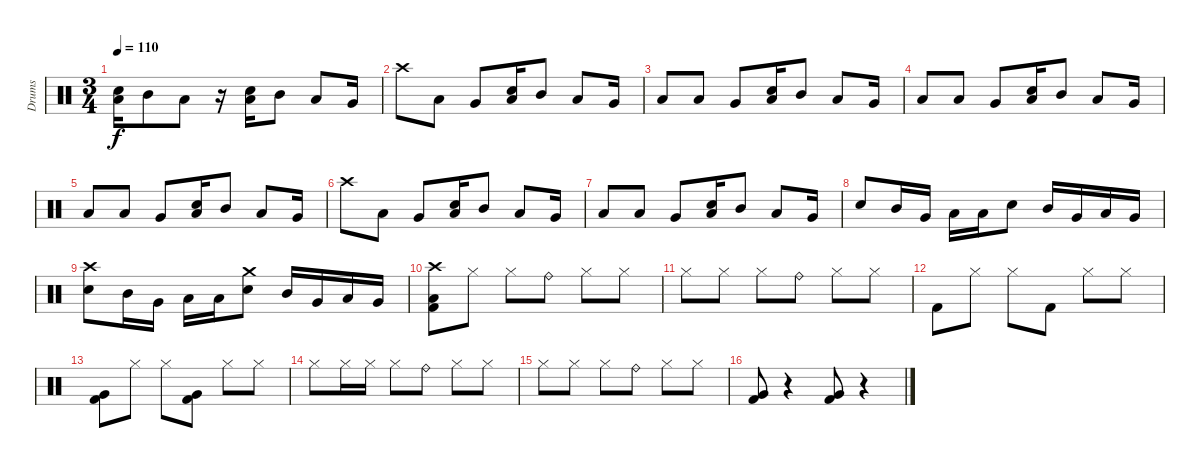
\track ("Drums" "Drums") {instrument percussion}
\staff {score}
\articulation defaults
\ts (3 4)
\tempo 110
\clef neutral
\ks c
("Low Floor Tom (hit)" "Snare (hit) 2").16{dy f} "Mid Tom (hit)".8 "Low Tom (hit)".8 r.16 ("Low Floor Tom (hit)" "Snare (hit) 2").16 "Mid Tom (hit)".8 "Low Tom (hit)".8 "Very Low Tom (hit)".16 |
"Crash high (hit)".8 "Low Tom (hit)".8 "Very Low Tom (hit)".8 ("Low Floor Tom (hit)" "Snare (hit) 2").16 "Mid Tom (hit)".8 "Low Tom (hit)".8 "Very Low Tom (hit)".16 |
"Low Floor Tom (hit)".8 "Low Tom (hit)".8 "Very Low Tom (hit)".8 ("Low Floor Tom (hit)" "Snare (hit) 2").16 "Mid Tom (hit)".8 "Low Tom (hit)".8 "Very Low Tom (hit)".16 |
"Low Floor Tom (hit)".8 "Low Tom (hit)".8 "Very Low Tom (hit)".8 ("Low Floor Tom (hit)" "Snare (hit) 2").16 "Mid Tom (hit)".8 "Low Tom (hit)".8 "Very Low Tom (hit)".16 |
"Low Floor Tom (hit)".8 "Low Tom (hit)".8 "Very Low Tom (hit)".8 ("Low Floor Tom (hit)" "Snare (hit) 2").16 "Mid Tom (hit)".8 "Low Tom (hit)".8 "Very Low Tom (hit)".16 |
"Crash high (hit)".8 "Low Tom (hit)".8 "Very Low Tom (hit)".8 ("Low Floor Tom (hit)" "Snare (hit) 2").16 "Mid Tom (hit)".8 "Low Tom (hit)".8 "Very Low Tom (hit)".16 |
"Low Floor Tom (hit)".8 "Low Tom (hit)".8 "Very Low Tom (hit)".8 ("Low Floor Tom (hit)" "Snare (hit) 2").16 "Mid Tom (hit)".8 "Low Tom (hit)".8 "Very Low Tom (hit)".16 |
"Snare (hit) 2".8 "Mid Tom (hit)".16 "Very Low Tom (hit)".16 "Low Tom (hit)".16 "Low Floor Tom (hit)".16 "Snare (hit) 2".8 "Mid Tom (hit)".16 "Very Low Tom (hit)".16 "Low Tom (hit)".16 "Very Low Tom (hit)".16 |
("Crash high (hit)" "Snare (hit) 2").8 "Mid Tom (hit)".16 "Very Low Tom (hit)".16 "Low Tom (hit)".16 "Low Floor Tom (hit)".16 ("Crash medium (hit)" "Snare (hit) 2").8 "Mid Tom (hit)".16 "Very Low Tom (hit)".16 "Low Tom (hit)".16 "Very Low Tom (hit)".16 |
("Crash high (hit)" "Low Floor Tom (hit)" "Kick (hit) 2").8 "Hi-Hat (closed)".8 "Hi-Hat (closed)".8 "Ride (bell)".8 "Hi-Hat (closed)".8 "Hi-Hat (closed)".8 |
"Hi-Hat (closed)".8 "Hi-Hat (closed)".8 "Hi-Hat (closed)".8 "Ride (bell)".8 "Hi-Hat (closed)".8 "Hi-Hat (closed)".8 |
"Kick (hit) 2".8 "Hi-Hat (closed)".8 "Hi-Hat (closed)".8 "Kick (hit) 2".8 "Hi-Hat (closed)".8 "Hi-Hat (closed)".8 |
("Very Low Tom (hit)" "Kick (hit) 2").8 "Hi-Hat (closed)".8 "Hi-Hat (closed)".8 ("Very Low Tom (hit)" "Kick (hit) 2").8 "Hi-Hat (closed)".8 "Hi-Hat (closed)".8 |
"Hi-Hat (closed)".8 "Hi-Hat (closed)".16 "Hi-Hat (closed)".16 "Hi-Hat (closed)".8 "Ride (bell)".8 "Hi-Hat (closed)".8 "Hi-Hat (closed)".8 |
"Hi-Hat (closed)".8 "Hi-Hat (closed)".8 "Hi-Hat (closed)".8 "Ride (bell)".8 "Hi-Hat (closed)".8 "Hi-Hat (closed)".8 |
("Very Low Tom (hit)" "Kick (hit) 2").8 r.4 ("Very Low Tom (hit)" "Kick (hit) 2").8 r.4
